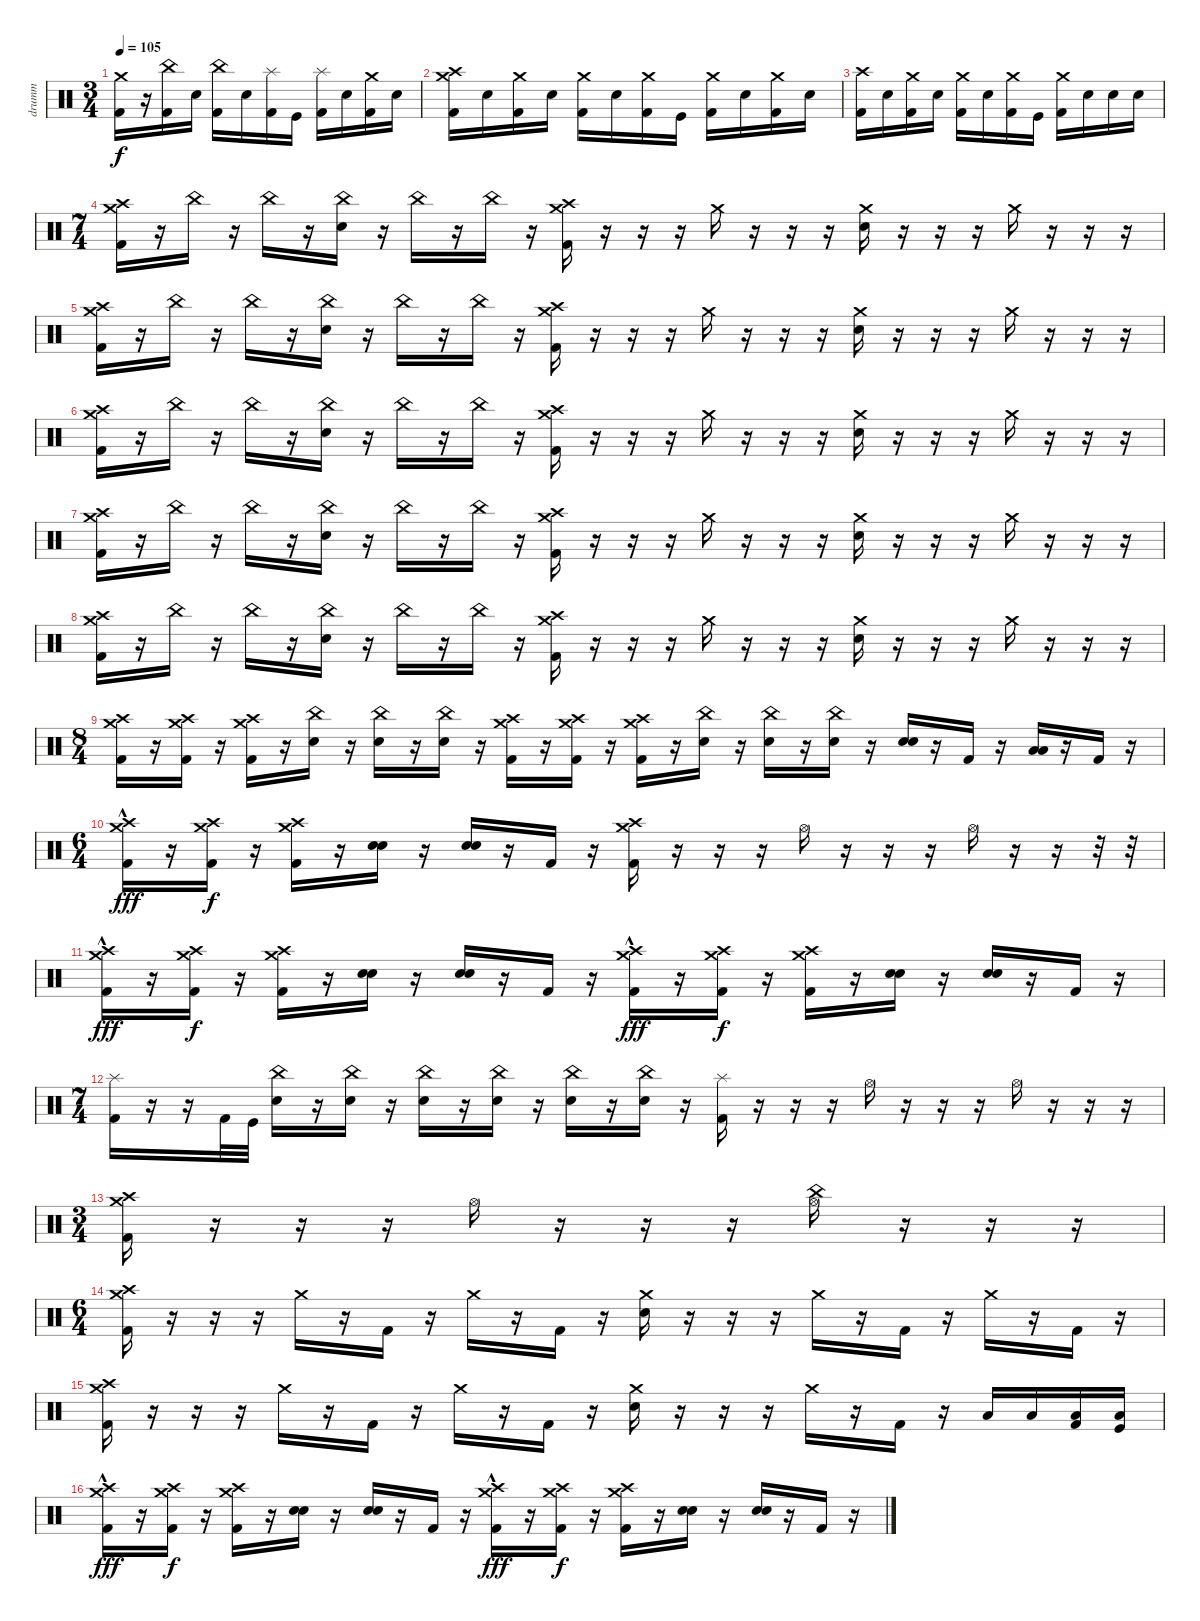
\track ("drumm" "drumm") {instrument percussion}
\staff
\articulation defaults
\ts (3 4)
\tempo 105
\clef neutral
\ks c
("Kick (hit) 2" "Crash medium (hit)").16{dy f} r.16 ("Kick (hit) 2" "China (hit)").16 "Electric Snare (hit)".16 ("Kick (hit) 2" "China (hit)").16 "Electric Snare (hit)".16 ("Kick (hit) 2" "Splash (hit)").16 "Kick (hit)".16 ("Kick (hit) 2" "Splash (hit)").16 "Electric Snare (hit)".16 ("Kick (hit) 2" "Crash medium (hit)").16 "Electric Snare (hit)".16 |
("Kick (hit) 2" "Crash medium (hit)" "Crash high (hit)").16 "Electric Snare (hit)".16 ("Kick (hit) 2" "Crash medium (hit)").16 "Electric Snare (hit)".16 ("Kick (hit) 2" "Crash medium (hit)").16 "Electric Snare (hit)".16 ("Kick (hit) 2" "Crash medium (hit)").16 "Kick (hit)".16 ("Kick (hit) 2" "Crash medium (hit)").16 "Electric Snare (hit)".16 ("Kick (hit) 2" "Crash medium (hit)").16 "Electric Snare (hit)".16 |
("Kick (hit) 2" "Crash high (hit)").16 "Electric Snare (hit)".16 ("Kick (hit) 2" "Crash medium (hit)").16 "Electric Snare (hit)".16 ("Kick (hit) 2" "Crash medium (hit)").16 "Electric Snare (hit)".16 ("Kick (hit) 2" "Crash medium (hit)").16 "Kick (hit)".16 ("Kick (hit) 2" "Crash medium (hit)").16 "Electric Snare (hit)".16 "Electric Snare (hit)".16 "Electric Snare (hit)".16 |
\ts (7 4)
("Kick (hit) 2" "Crash medium (hit)" "Crash high (hit)").16 r.16 "China (hit)".16 r.16 "China (hit)".16 r.16 ("Electric Snare (hit)" "China (hit)").16 r.16 "China (hit)".16 r.16 "China (hit)".16 r.16 ("Kick (hit) 2" "Crash medium (hit)" "Crash high (hit)").16 r.16 r.16 r.16 "Crash medium (hit)".16 r.16 r.16 r.16 ("Electric Snare (hit)" "Crash medium (hit)").16 r.16 r.16 r.16 "Crash medium (hit)".16 r.16 r.16 r.16 |
("Kick (hit) 2" "Crash medium (hit)" "Crash high (hit)").16 r.16 "China (hit)".16 r.16 "China (hit)".16 r.16 ("Electric Snare (hit)" "China (hit)").16 r.16 "China (hit)".16 r.16 "China (hit)".16 r.16 ("Kick (hit) 2" "Crash medium (hit)" "Crash high (hit)").16 r.16 r.16 r.16 "Crash medium (hit)".16 r.16 r.16 r.16 ("Electric Snare (hit)" "Crash medium (hit)").16 r.16 r.16 r.16 "Crash medium (hit)".16 r.16 r.16 r.16 |
("Kick (hit) 2" "Crash medium (hit)" "Crash high (hit)").16 r.16 "China (hit)".16 r.16 "China (hit)".16 r.16 ("Electric Snare (hit)" "China (hit)").16 r.16 "China (hit)".16 r.16 "China (hit)".16 r.16 ("Kick (hit) 2" "Crash medium (hit)" "Crash high (hit)").16 r.16 r.16 r.16 "Crash medium (hit)".16 r.16 r.16 r.16 ("Electric Snare (hit)" "Crash medium (hit)").16 r.16 r.16 r.16 "Crash medium (hit)".16 r.16 r.16 r.16 |
("Kick (hit) 2" "Crash medium (hit)" "Crash high (hit)").16 r.16 "China (hit)".16 r.16 "China (hit)".16 r.16 ("Electric Snare (hit)" "China (hit)").16 r.16 "China (hit)".16 r.16 "China (hit)".16 r.16 ("Kick (hit) 2" "Crash medium (hit)" "Crash high (hit)").16 r.16 r.16 r.16 "Crash medium (hit)".16 r.16 r.16 r.16 ("Electric Snare (hit)" "Crash medium (hit)").16 r.16 r.16 r.16 "Crash medium (hit)".16 r.16 r.16 r.16 |
("Kick (hit) 2" "Crash medium (hit)" "Crash high (hit)").16 r.16 "China (hit)".16 r.16 "China (hit)".16 r.16 ("Electric Snare (hit)" "China (hit)").16 r.16 "China (hit)".16 r.16 "China (hit)".16 r.16 ("Kick (hit) 2" "Crash medium (hit)" "Crash high (hit)").16 r.16 r.16 r.16 "Crash medium (hit)".16 r.16 r.16 r.16 ("Electric Snare (hit)" "Crash medium (hit)").16 r.16 r.16 r.16 "Crash medium (hit)".16 r.16 r.16 r.16 |
\ts (8 4)
("Kick (hit) 2" "Crash medium (hit)" "Crash high (hit)").16 r.16 ("Kick (hit) 2" "Crash medium (hit)" "Crash high (hit)").16 r.16 ("Kick (hit) 2" "Crash medium (hit)" "Crash high (hit)").16 r.16 ("Electric Snare (hit)" "China (hit)").16 r.16 ("Electric Snare (hit)" "China (hit)").16 r.16 ("Electric Snare (hit)" "China (hit)").16 r.16 ("Kick (hit) 2" "Crash medium (hit)" "Crash high (hit)").16 r.16 ("Kick (hit) 2" "Crash medium (hit)" "Crash high (hit)").16 r.16 ("Kick (hit) 2" "Crash high (hit)" "Crash medium (hit)").16 r.16 ("Electric Snare (hit)" "China (hit)").16 r.16 ("Electric Snare (hit)" "China (hit)").16 r.16 ("Electric Snare (hit)" "China (hit)").16 r.16 ("Electric Snare (hit)" "Electric Snare (hit)").16 r.16 "Kick (hit) 2".16 r.16 ("Low Tom (hit)" "Low Tom (hit)").16 r.16 "Kick (hit) 2".16 r.16 |
\ts (6 4)
("Kick (hit) 2"{hac} "Crash medium (hit)" "Crash high (hit)").16{dy fff} r.16 ("Kick (hit) 2" "Crash medium (hit)" "Crash high (hit)").16{dy f} r.16 ("Kick (hit) 2" "Crash medium (hit)" "Crash high (hit)").16 r.16 ("Electric Snare (hit)" "Electric Snare (hit)").16 r.16 ("Electric Snare (hit)" "Electric Snare (hit)").16 r.16 "Kick (hit) 2".16 r.16 ("Kick (hit) 2" "Crash medium (hit)" "Crash high (hit)").16 r.16 r.16 r.16 "Hi-Hat (open)".16 r.16 r.16 r.16 "Hi-Hat (open)".16 r.16 r.16 r.32 r.32 |
("Kick (hit) 2"{hac} "Crash medium (hit)" "Crash high (hit)").16{dy fff} r.16 ("Kick (hit) 2" "Crash medium (hit)" "Crash high (hit)").16{dy f} r.16 ("Kick (hit) 2" "Crash medium (hit)" "Crash high (hit)").16 r.16 ("Electric Snare (hit)" "Electric Snare (hit)").16 r.16 ("Electric Snare (hit)" "Electric Snare (hit)").16 r.16 "Kick (hit) 2".16 r.16 ("Kick (hit) 2"{hac} "Crash medium (hit)" "Crash high (hit)").16{dy fff} r.16 ("Kick (hit) 2" "Crash medium (hit)" "Crash high (hit)").16{dy f} r.16 ("Kick (hit) 2" "Crash medium (hit)" "Crash high (hit)").16 r.16 ("Electric Snare (hit)" "Electric Snare (hit)").16 r.16 ("Electric Snare (hit)" "Electric Snare (hit)").16 r.16 "Kick (hit) 2".16 r.16 |
\ts (7 4)
("Kick (hit) 2" "Splash (hit)").16 r.16 r.16 "Kick (hit) 2".32 "Kick (hit)".32 ("Electric Snare (hit)" "China (hit)").16 r.16 ("Electric Snare (hit)" "China (hit)").16 r.16 ("Electric Snare (hit)" "China (hit)").16 r.16 ("Electric Snare (hit)" "China (hit)").16 r.16 ("Electric Snare (hit)" "China (hit)").16 r.16 ("Electric Snare (hit)" "China (hit)").16 r.16 ("Kick (hit) 2" "Splash (hit)").16 r.16 r.16 r.16 "Hi-Hat (open)".16 r.16 r.16 r.16 "Hi-Hat (open)".16 r.16 r.16 r.16 |
\ts (3 4)
("Kick (hit) 2" "Crash medium (hit)" "Crash high (hit)").16 r.16 r.16 r.16 "Hi-Hat (open)".16 r.16 r.16 r.16 ("Hi-Hat (open)" "China (hit)").16 r.16 r.16 r.16 |
\ts (6 4)
("Kick (hit) 2" "Crash medium (hit)" "Crash high (hit)").16 r.16 r.16 r.16 "Crash medium (hit)".16 r.16 "Kick (hit) 2".16 r.16 "Crash medium (hit)".16 r.16 "Kick (hit) 2".16 r.16 ("Crash medium (hit)" "Electric Snare (hit)").16 r.16 r.16 r.16 "Crash medium (hit)".16 r.16 "Kick (hit) 2".16 r.16 "Crash medium (hit)".16 r.16 "Kick (hit) 2".16 r.16 |
("Kick (hit) 2" "Crash medium (hit)" "Crash high (hit)").16 r.16 r.16 r.16 "Crash medium (hit)".16 r.16 "Kick (hit) 2".16 r.16 "Crash medium (hit)".16 r.16 "Kick (hit) 2".16 r.16 ("Crash medium (hit)" "Electric Snare (hit)").16 r.16 r.16 r.16 "Crash medium (hit)".16 r.16 "Kick (hit) 2".16 r.16 "Low Tom (hit)".16 "Low Tom (hit)".16 ("Low Floor Tom (hit)" "Kick (hit) 2").16 ("Low Floor Tom (hit)" "Kick (hit)").16 |
("Kick (hit) 2"{hac} "Crash medium (hit)" "Crash high (hit)").16{dy fff} r.16 ("Kick (hit) 2" "Crash medium (hit)" "Crash high (hit)").16{dy f} r.16 ("Kick (hit) 2" "Crash medium (hit)" "Crash high (hit)").16 r.16 ("Electric Snare (hit)" "Electric Snare (hit)").16 r.16 ("Electric Snare (hit)" "Electric Snare (hit)").16 r.16 "Kick (hit) 2".16 r.16 ("Kick (hit) 2"{hac} "Crash medium (hit)" "Crash high (hit)").16{dy fff} r.16 ("Kick (hit) 2" "Crash medium (hit)" "Crash high (hit)").16{dy f} r.16 ("Kick (hit) 2" "Crash medium (hit)" "Crash high (hit)").16 r.16 ("Electric Snare (hit)" "Electric Snare (hit)").16 r.16 ("Electric Snare (hit)" "Electric Snare (hit)").16 r.16 "Kick (hit) 2".16 r.16
